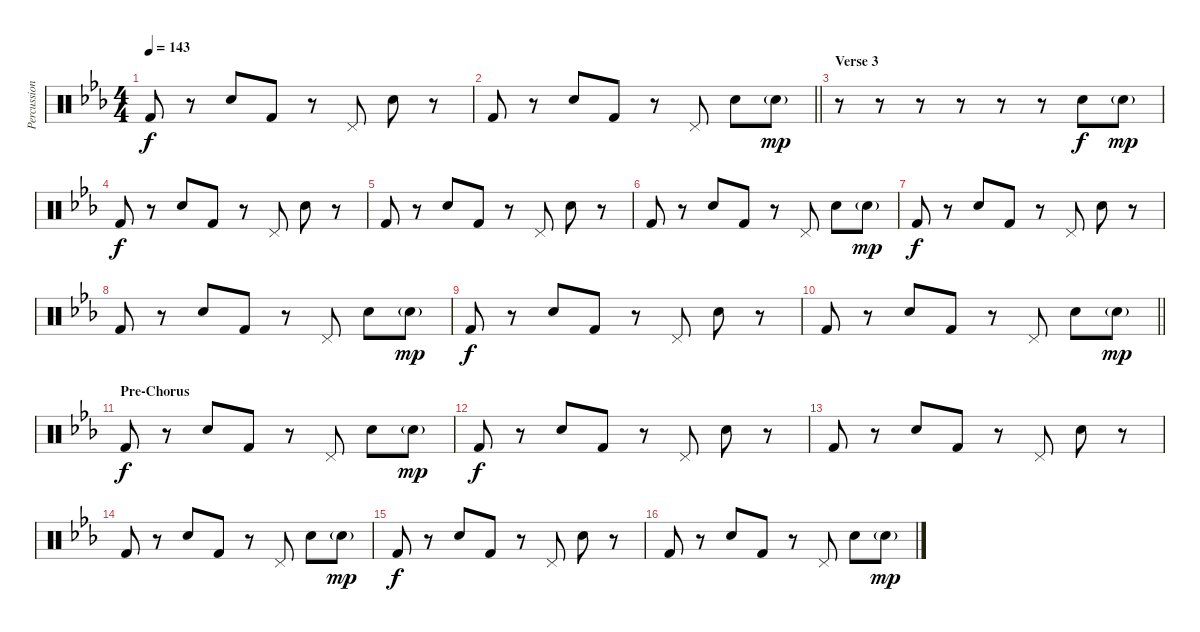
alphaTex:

\track ("Percussion" "Percussion") {instrument percussion}
\staff {score}
\articulation defaults
\ts (4 4)
\tempo 143
\clef neutral
\ks cminor "Kick (hit) 2".8{dy f}
r.8 "Electric Snare (hit)".8 "Kick (hit) 2".8 r.8 "Pedal Hi-Hat (hit)".8 "Electric Snare (hit)".8 r.8 |
\barLineRight lightlight "Kick (hit) 2".8
r.8 "Electric Snare (hit)".8 "Kick (hit) 2".8 r.8 "Pedal Hi-Hat (hit)".8 "Electric Snare (hit)".8 "Electric Snare (hit)"{g}.8{dy mp} |
\section ("" "Verse 3")
r.8 r.8 r.8 r.8 r.8 r.8 "Electric Snare (hit)".8{dy f} "Electric Snare (hit)"{g}.8{dy mp} |
"Kick (hit) 2".8{dy f} r.8 "Electric Snare (hit)".8 "Kick (hit) 2".8 r.8 "Pedal Hi-Hat (hit)".8 "Electric Snare (hit)".8 r.8 |
"Kick (hit) 2".8 r.8 "Electric Snare (hit)".8 "Kick (hit) 2".8 r.8 "Pedal Hi-Hat (hit)".8 "Electric Snare (hit)".8 r.8 |
"Kick (hit) 2".8 r.8 "Electric Snare (hit)".8 "Kick (hit) 2".8 r.8 "Pedal Hi-Hat (hit)".8 "Electric Snare (hit)".8 "Electric Snare (hit)"{g}.8{dy mp} |
"Kick (hit) 2".8{dy f} r.8 "Electric Snare (hit)".8 "Kick (hit) 2".8 r.8 "Pedal Hi-Hat (hit)".8 "Electric Snare (hit)".8 r.8 |
"Kick (hit) 2".8 r.8 "Electric Snare (hit)".8 "Kick (hit) 2".8 r.8 "Pedal Hi-Hat (hit)".8 "Electric Snare (hit)".8 "Electric Snare (hit)"{g}.8{dy mp} |
"Kick (hit) 2".8{dy f} r.8 "Electric Snare (hit)".8 "Kick (hit) 2".8 r.8 "Pedal Hi-Hat (hit)".8 "Electric Snare (hit)".8 r.8 |
\barLineRight lightlight "Kick (hit) 2".8
r.8 "Electric Snare (hit)".8 "Kick (hit) 2".8 r.8 "Pedal Hi-Hat (hit)".8 "Electric Snare (hit)".8 "Electric Snare (hit)"{g}.8{dy mp} |
\section ("" "Pre-Chorus")
"Kick (hit) 2".8{dy f} r.8 "Electric Snare (hit)".8 "Kick (hit) 2".8 r.8 "Pedal Hi-Hat (hit)".8 "Electric Snare (hit)".8 "Electric Snare (hit)"{g}.8{dy mp} |
"Kick (hit) 2".8{dy f} r.8 "Electric Snare (hit)".8 "Kick (hit) 2".8 r.8 "Pedal Hi-Hat (hit)".8 "Electric Snare (hit)".8 r.8 |
"Kick (hit) 2".8 r.8 "Electric Snare (hit)".8 "Kick (hit) 2".8 r.8 "Pedal Hi-Hat (hit)".8 "Electric Snare (hit)".8 r.8 |
"Kick (hit) 2".8 r.8 "Electric Snare (hit)".8 "Kick (hit) 2".8 r.8 "Pedal Hi-Hat (hit)".8 "Electric Snare (hit)".8 "Electric Snare (hit)"{g}.8{dy mp} |
"Kick (hit) 2".8{dy f} r.8 "Electric Snare (hit)".8 "Kick (hit) 2".8 r.8 "Pedal Hi-Hat (hit)".8 "Electric Snare (hit)".8 r.8 |
"Kick (hit) 2".8 r.8 "Electric Snare (hit)".8 "Kick (hit) 2".8 r.8 "Pedal Hi-Hat (hit)".8 "Electric Snare (hit)".8 "Electric Snare (hit)"{g}.8{dy mp}
